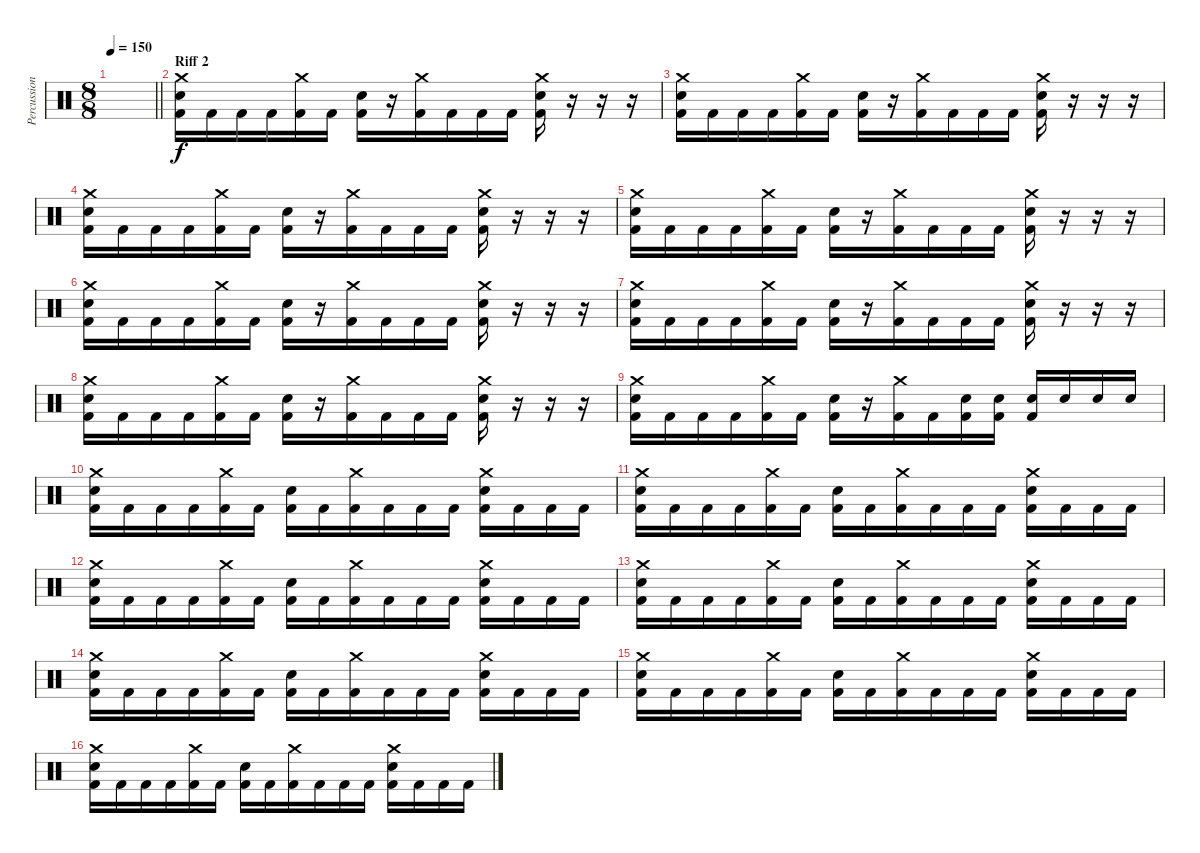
\track ("Percussions" "Percussion") {instrument percussion}
\staff {score}
\articulation defaults
\ts (8 8)
\tempo 150
\clef neutral
\barLineRight lightlight
\ks c
|
\section ("" "Riff 2")
("Crash medium (hit)" "Electric Snare (hit)" "Kick (hit) 2").16 "Kick (hit) 2".16 "Kick (hit) 2".16 "Kick (hit) 2".16 ("Crash medium (hit)" "Kick (hit) 2").16 "Kick (hit) 2".16 ("Electric Snare (hit)" "Kick (hit) 2").16 r.16 ("Crash medium (hit)" "Kick (hit) 2").16 "Kick (hit) 2".16 "Kick (hit) 2".16 "Kick (hit) 2".16 ("Crash medium (hit)" "Electric Snare (hit)" "Kick (hit) 2").16 r.16 r.16 r.16 |
("Crash medium (hit)" "Electric Snare (hit)" "Kick (hit) 2").16 "Kick (hit) 2".16 "Kick (hit) 2".16 "Kick (hit) 2".16 ("Crash medium (hit)" "Kick (hit) 2").16 "Kick (hit) 2".16 ("Electric Snare (hit)" "Kick (hit) 2").16 r.16 ("Crash medium (hit)" "Kick (hit) 2").16 "Kick (hit) 2".16 "Kick (hit) 2".16 "Kick (hit) 2".16 ("Crash medium (hit)" "Electric Snare (hit)" "Kick (hit) 2").16 r.16 r.16 r.16 |
("Crash medium (hit)" "Electric Snare (hit)" "Kick (hit) 2").16 "Kick (hit) 2".16 "Kick (hit) 2".16 "Kick (hit) 2".16 ("Crash medium (hit)" "Kick (hit) 2").16 "Kick (hit) 2".16 ("Electric Snare (hit)" "Kick (hit) 2").16 r.16 ("Crash medium (hit)" "Kick (hit) 2").16 "Kick (hit) 2".16 "Kick (hit) 2".16 "Kick (hit) 2".16 ("Crash medium (hit)" "Electric Snare (hit)" "Kick (hit) 2").16 r.16 r.16 r.16 |
("Crash medium (hit)" "Electric Snare (hit)" "Kick (hit) 2").16 "Kick (hit) 2".16 "Kick (hit) 2".16 "Kick (hit) 2".16 ("Crash medium (hit)" "Kick (hit) 2").16 "Kick (hit) 2".16 ("Electric Snare (hit)" "Kick (hit) 2").16 r.16 ("Crash medium (hit)" "Kick (hit) 2").16 "Kick (hit) 2".16 "Kick (hit) 2".16 "Kick (hit) 2".16 ("Crash medium (hit)" "Electric Snare (hit)" "Kick (hit) 2").16 r.16 r.16 r.16 |
("Crash medium (hit)" "Electric Snare (hit)" "Kick (hit) 2").16 "Kick (hit) 2".16 "Kick (hit) 2".16 "Kick (hit) 2".16 ("Crash medium (hit)" "Kick (hit) 2").16 "Kick (hit) 2".16 ("Electric Snare (hit)" "Kick (hit) 2").16 r.16 ("Crash medium (hit)" "Kick (hit) 2").16 "Kick (hit) 2".16 "Kick (hit) 2".16 "Kick (hit) 2".16 ("Crash medium (hit)" "Electric Snare (hit)" "Kick (hit) 2").16 r.16 r.16 r.16 |
("Crash medium (hit)" "Electric Snare (hit)" "Kick (hit) 2").16 "Kick (hit) 2".16 "Kick (hit) 2".16 "Kick (hit) 2".16 ("Crash medium (hit)" "Kick (hit) 2").16 "Kick (hit) 2".16 ("Electric Snare (hit)" "Kick (hit) 2").16 r.16 ("Crash medium (hit)" "Kick (hit) 2").16 "Kick (hit) 2".16 "Kick (hit) 2".16 "Kick (hit) 2".16 ("Crash medium (hit)" "Electric Snare (hit)" "Kick (hit) 2").16 r.16 r.16 r.16 |
("Crash medium (hit)" "Electric Snare (hit)" "Kick (hit) 2").16 "Kick (hit) 2".16 "Kick (hit) 2".16 "Kick (hit) 2".16 ("Crash medium (hit)" "Kick (hit) 2").16 "Kick (hit) 2".16 ("Electric Snare (hit)" "Kick (hit) 2").16 r.16 ("Crash medium (hit)" "Kick (hit) 2").16 "Kick (hit) 2".16 "Kick (hit) 2".16 "Kick (hit) 2".16 ("Crash medium (hit)" "Electric Snare (hit)" "Kick (hit) 2").16 r.16 r.16 r.16 |
("Crash medium (hit)" "Electric Snare (hit)" "Kick (hit) 2").16 "Kick (hit) 2".16 "Kick (hit) 2".16 "Kick (hit) 2".16 ("Crash medium (hit)" "Kick (hit) 2").16 "Kick (hit) 2".16 ("Electric Snare (hit)" "Kick (hit) 2").16 r.16 ("Crash medium (hit)" "Kick (hit) 2").16 "Kick (hit) 2".16 ("Electric Snare (hit)" "Kick (hit) 2").16 ("Electric Snare (hit)" "Kick (hit) 2").16 ("Electric Snare (hit)" "Kick (hit) 2").16 "Electric Snare (hit)".16 "Electric Snare (hit)".16 "Electric Snare (hit)".16 |
("Crash medium (hit)" "Electric Snare (hit)" "Kick (hit) 2").16 "Kick (hit) 2".16 "Kick (hit) 2".16 "Kick (hit) 2".16 ("Crash medium (hit)" "Kick (hit) 2").16 "Kick (hit) 2".16 ("Electric Snare (hit)" "Kick (hit) 2").16 "Kick (hit) 2".16 ("Crash medium (hit)" "Kick (hit) 2").16 "Kick (hit) 2".16 "Kick (hit) 2".16 "Kick (hit) 2".16 ("Crash medium (hit)" "Electric Snare (hit)" "Kick (hit) 2").16 "Kick (hit) 2".16 "Kick (hit) 2".16 "Kick (hit) 2".16 |
("Crash medium (hit)" "Electric Snare (hit)" "Kick (hit) 2").16 "Kick (hit) 2".16 "Kick (hit) 2".16 "Kick (hit) 2".16 ("Crash medium (hit)" "Kick (hit) 2").16 "Kick (hit) 2".16 ("Electric Snare (hit)" "Kick (hit) 2").16 "Kick (hit) 2".16 ("Crash medium (hit)" "Kick (hit) 2").16 "Kick (hit) 2".16 "Kick (hit) 2".16 "Kick (hit) 2".16 ("Crash medium (hit)" "Electric Snare (hit)" "Kick (hit) 2").16 "Kick (hit) 2".16 "Kick (hit) 2".16 "Kick (hit) 2".16 |
("Crash medium (hit)" "Electric Snare (hit)" "Kick (hit) 2").16 "Kick (hit) 2".16 "Kick (hit) 2".16 "Kick (hit) 2".16 ("Crash medium (hit)" "Kick (hit) 2").16 "Kick (hit) 2".16 ("Electric Snare (hit)" "Kick (hit) 2").16 "Kick (hit) 2".16 ("Crash medium (hit)" "Kick (hit) 2").16 "Kick (hit) 2".16 "Kick (hit) 2".16 "Kick (hit) 2".16 ("Crash medium (hit)" "Electric Snare (hit)" "Kick (hit) 2").16 "Kick (hit) 2".16 "Kick (hit) 2".16 "Kick (hit) 2".16 |
("Crash medium (hit)" "Electric Snare (hit)" "Kick (hit) 2").16 "Kick (hit) 2".16 "Kick (hit) 2".16 "Kick (hit) 2".16 ("Crash medium (hit)" "Kick (hit) 2").16 "Kick (hit) 2".16 ("Electric Snare (hit)" "Kick (hit) 2").16 "Kick (hit) 2".16 ("Crash medium (hit)" "Kick (hit) 2").16 "Kick (hit) 2".16 "Kick (hit) 2".16 "Kick (hit) 2".16 ("Crash medium (hit)" "Electric Snare (hit)" "Kick (hit) 2").16 "Kick (hit) 2".16 "Kick (hit) 2".16 "Kick (hit) 2".16 |
("Crash medium (hit)" "Electric Snare (hit)" "Kick (hit) 2").16 "Kick (hit) 2".16 "Kick (hit) 2".16 "Kick (hit) 2".16 ("Crash medium (hit)" "Kick (hit) 2").16 "Kick (hit) 2".16 ("Electric Snare (hit)" "Kick (hit) 2").16 "Kick (hit) 2".16 ("Crash medium (hit)" "Kick (hit) 2").16 "Kick (hit) 2".16 "Kick (hit) 2".16 "Kick (hit) 2".16 ("Crash medium (hit)" "Electric Snare (hit)" "Kick (hit) 2").16 "Kick (hit) 2".16 "Kick (hit) 2".16 "Kick (hit) 2".16 |
("Crash medium (hit)" "Electric Snare (hit)" "Kick (hit) 2").16 "Kick (hit) 2".16 "Kick (hit) 2".16 "Kick (hit) 2".16 ("Crash medium (hit)" "Kick (hit) 2").16 "Kick (hit) 2".16 ("Electric Snare (hit)" "Kick (hit) 2").16 "Kick (hit) 2".16 ("Crash medium (hit)" "Kick (hit) 2").16 "Kick (hit) 2".16 "Kick (hit) 2".16 "Kick (hit) 2".16 ("Crash medium (hit)" "Electric Snare (hit)" "Kick (hit) 2").16 "Kick (hit) 2".16 "Kick (hit) 2".16 "Kick (hit) 2".16 |
("Crash medium (hit)" "Electric Snare (hit)" "Kick (hit) 2").16 "Kick (hit) 2".16 "Kick (hit) 2".16 "Kick (hit) 2".16 ("Crash medium (hit)" "Kick (hit) 2").16 "Kick (hit) 2".16 ("Electric Snare (hit)" "Kick (hit) 2").16 "Kick (hit) 2".16 ("Crash medium (hit)" "Kick (hit) 2").16 "Kick (hit) 2".16 "Kick (hit) 2".16 "Kick (hit) 2".16 ("Crash medium (hit)" "Electric Snare (hit)" "Kick (hit) 2").16 "Kick (hit) 2".16 "Kick (hit) 2".16 "Kick (hit) 2".16
